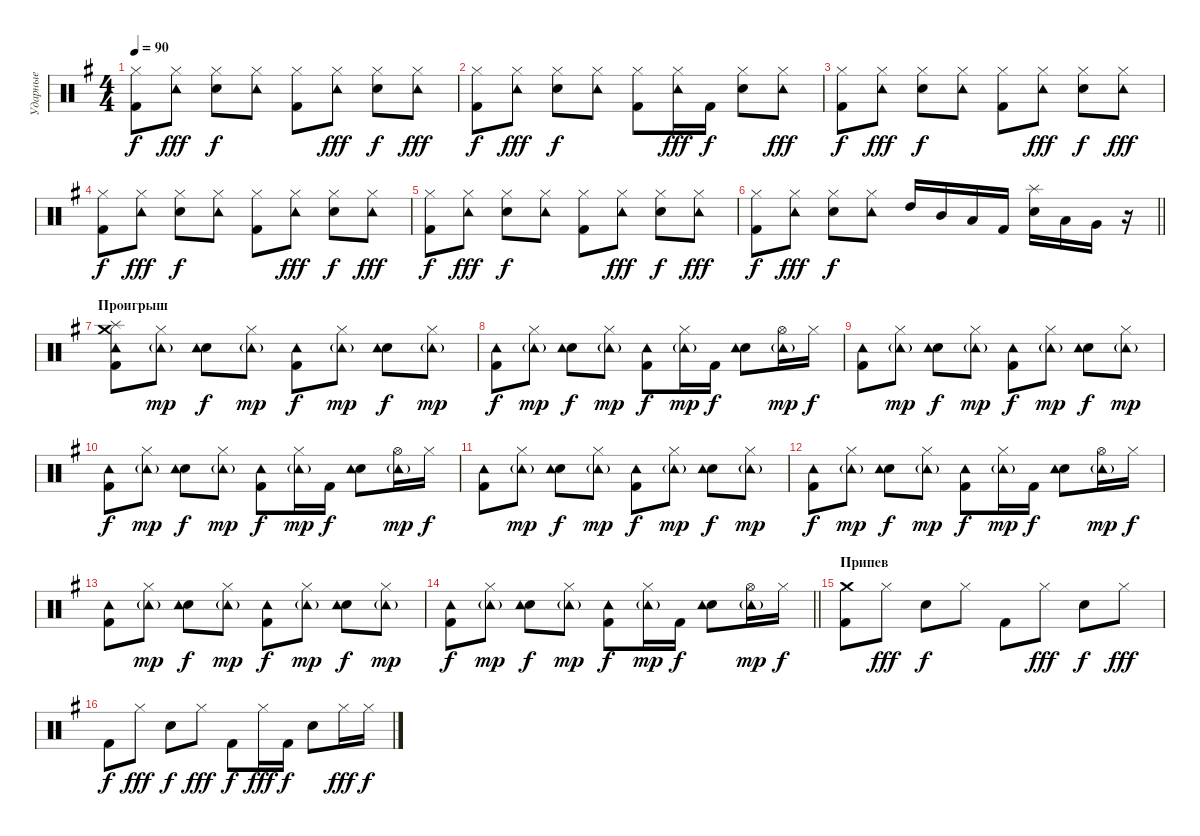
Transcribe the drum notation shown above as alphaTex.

\track ("Ударные" "Ударные") {instrument percussion}
\staff {score}
\articulation defaults
\ts (4 4)
\tempo 90
\clef neutral
\ks eminor
("Kick (hit) 2" "Hi-Hat (closed)").8{dy f} ("Hi-Hat (closed)" "Tambourine (hit)").8{dy fff} ("Electric Snare (hit)" "Hi-Hat (closed)").8{dy f} ("Hi-Hat (closed)" "Tambourine (hit)").8 ("Kick (hit) 2" "Hi-Hat (closed)").8 ("Hi-Hat (closed)" "Tambourine (hit)").8{dy fff} ("Electric Snare (hit)" "Hi-Hat (closed)").8{dy f} ("Hi-Hat (closed)" "Tambourine (hit)").8{dy fff} |
("Kick (hit) 2" "Hi-Hat (closed)").8{dy f} ("Hi-Hat (closed)" "Tambourine (hit)").8{dy fff} ("Electric Snare (hit)" "Hi-Hat (closed)").8{dy f} ("Hi-Hat (closed)" "Tambourine (hit)").8 ("Kick (hit) 2" "Hi-Hat (closed)").8 ("Hi-Hat (closed)" "Tambourine (hit)").16{dy fff} "Kick (hit) 2".16{dy f} ("Electric Snare (hit)" "Hi-Hat (closed)").8 ("Hi-Hat (closed)" "Tambourine (hit)").8{dy fff} |
("Kick (hit) 2" "Hi-Hat (closed)").8{dy f} ("Hi-Hat (closed)" "Tambourine (hit)").8{dy fff} ("Electric Snare (hit)" "Hi-Hat (closed)").8{dy f} ("Hi-Hat (closed)" "Tambourine (hit)").8 ("Kick (hit) 2" "Hi-Hat (closed)").8 ("Hi-Hat (closed)" "Tambourine (hit)").8{dy fff} ("Electric Snare (hit)" "Hi-Hat (closed)").8{dy f} ("Hi-Hat (closed)" "Tambourine (hit)").8{dy fff} |
("Kick (hit) 2" "Hi-Hat (closed)").8{dy f} ("Hi-Hat (closed)" "Tambourine (hit)").8{dy fff} ("Electric Snare (hit)" "Hi-Hat (closed)").8{dy f} ("Hi-Hat (closed)" "Tambourine (hit)").8 ("Kick (hit) 2" "Hi-Hat (closed)").8 ("Hi-Hat (closed)" "Tambourine (hit)").8{dy fff} ("Electric Snare (hit)" "Hi-Hat (closed)").8{dy f} ("Hi-Hat (closed)" "Tambourine (hit)").8{dy fff} |
("Kick (hit) 2" "Hi-Hat (closed)").8{dy f} ("Hi-Hat (closed)" "Tambourine (hit)").8{dy fff} ("Electric Snare (hit)" "Hi-Hat (closed)").8{dy f} ("Hi-Hat (closed)" "Tambourine (hit)").8 ("Kick (hit) 2" "Hi-Hat (closed)").8 ("Hi-Hat (closed)" "Tambourine (hit)").8{dy fff} ("Electric Snare (hit)" "Hi-Hat (closed)").8{dy f} ("Hi-Hat (closed)" "Tambourine (hit)").8{dy fff} |
\barLineRight lightlight
("Kick (hit) 2" "Hi-Hat (closed)").8{dy f} ("Hi-Hat (closed)" "Tambourine (hit)").8{dy fff} ("Electric Snare (hit)" "Hi-Hat (closed)").8{dy f} ("Hi-Hat (closed)" "Tambourine (hit)").8 "High Tom (hit)".16 "Mid Tom (hit)".16 "Low Tom (hit)".16 "Kick (hit) 2".16 ("Splash (hit)" "Electric Snare (hit)").16 "Low Tom (hit)".16 "Very Low Tom (hit)".16 r.16 |
\section ("" "Проигрыш")
("Splash (hit)" "Kick (hit) 2" "Crash medium (hit)" "Tambourine (hit)").8 ("Hi-Hat (closed)" "Tambourine (hit)"{g}).8{dy mp} ("Electric Snare (hit)" "Tambourine (hit)").8{dy f} ("Hi-Hat (closed)" "Tambourine (hit)"{g}).8{dy mp} ("Kick (hit) 2" "Tambourine (hit)").8{dy f} ("Hi-Hat (closed)" "Tambourine (hit)"{g}).8{dy mp} ("Electric Snare (hit)" "Tambourine (hit)").8{dy f} ("Hi-Hat (closed)" "Tambourine (hit)"{g}).8{dy mp} |
("Kick (hit) 2" "Tambourine (hit)").8{dy f} ("Hi-Hat (closed)" "Tambourine (hit)"{g}).8{dy mp} ("Electric Snare (hit)" "Tambourine (hit)").8{dy f} ("Hi-Hat (closed)" "Tambourine (hit)"{g}).8{dy mp} ("Kick (hit) 2" "Tambourine (hit)").8{dy f} ("Hi-Hat (closed)" "Tambourine (hit)"{g}).16{dy mp} "Kick (hit) 2".16{dy f} ("Electric Snare (hit)" "Tambourine (hit)").8 ("Hi-Hat (open)" "Tambourine (hit)"{g}).16{dy mp} "Hi-Hat (closed)".16{dy f} |
("Kick (hit) 2" "Tambourine (hit)").8 ("Hi-Hat (closed)" "Tambourine (hit)"{g}).8{dy mp} ("Electric Snare (hit)" "Tambourine (hit)").8{dy f} ("Hi-Hat (closed)" "Tambourine (hit)"{g}).8{dy mp} ("Kick (hit) 2" "Tambourine (hit)").8{dy f} ("Hi-Hat (closed)" "Tambourine (hit)"{g}).8{dy mp} ("Electric Snare (hit)" "Tambourine (hit)").8{dy f} ("Hi-Hat (closed)" "Tambourine (hit)"{g}).8{dy mp} |
("Kick (hit) 2" "Tambourine (hit)").8{dy f} ("Hi-Hat (closed)" "Tambourine (hit)"{g}).8{dy mp} ("Electric Snare (hit)" "Tambourine (hit)").8{dy f} ("Hi-Hat (closed)" "Tambourine (hit)"{g}).8{dy mp} ("Kick (hit) 2" "Tambourine (hit)").8{dy f} ("Hi-Hat (closed)" "Tambourine (hit)"{g}).16{dy mp} "Kick (hit) 2".16{dy f} ("Electric Snare (hit)" "Tambourine (hit)").8 ("Hi-Hat (open)" "Tambourine (hit)"{g}).16{dy mp} "Hi-Hat (closed)".16{dy f} |
("Kick (hit) 2" "Tambourine (hit)").8 ("Hi-Hat (closed)" "Tambourine (hit)"{g}).8{dy mp} ("Electric Snare (hit)" "Tambourine (hit)").8{dy f} ("Hi-Hat (closed)" "Tambourine (hit)"{g}).8{dy mp} ("Kick (hit) 2" "Tambourine (hit)").8{dy f} ("Hi-Hat (closed)" "Tambourine (hit)"{g}).8{dy mp} ("Electric Snare (hit)" "Tambourine (hit)").8{dy f} ("Hi-Hat (closed)" "Tambourine (hit)"{g}).8{dy mp} |
("Kick (hit) 2" "Tambourine (hit)").8{dy f} ("Hi-Hat (closed)" "Tambourine (hit)"{g}).8{dy mp} ("Electric Snare (hit)" "Tambourine (hit)").8{dy f} ("Hi-Hat (closed)" "Tambourine (hit)"{g}).8{dy mp} ("Kick (hit) 2" "Tambourine (hit)").8{dy f} ("Hi-Hat (closed)" "Tambourine (hit)"{g}).16{dy mp} "Kick (hit) 2".16{dy f} ("Electric Snare (hit)" "Tambourine (hit)").8 ("Hi-Hat (open)" "Tambourine (hit)"{g}).16{dy mp} "Hi-Hat (closed)".16{dy f} |
("Kick (hit) 2" "Tambourine (hit)").8 ("Hi-Hat (closed)" "Tambourine (hit)"{g}).8{dy mp} ("Electric Snare (hit)" "Tambourine (hit)").8{dy f} ("Hi-Hat (closed)" "Tambourine (hit)"{g}).8{dy mp} ("Kick (hit) 2" "Tambourine (hit)").8{dy f} ("Hi-Hat (closed)" "Tambourine (hit)"{g}).8{dy mp} ("Electric Snare (hit)" "Tambourine (hit)").8{dy f} ("Hi-Hat (closed)" "Tambourine (hit)"{g}).8{dy mp} |
\barLineRight lightlight
("Kick (hit) 2" "Tambourine (hit)").8{dy f} ("Hi-Hat (closed)" "Tambourine (hit)"{g}).8{dy mp} ("Electric Snare (hit)" "Tambourine (hit)").8{dy f} ("Hi-Hat (closed)" "Tambourine (hit)"{g}).8{dy mp} ("Kick (hit) 2" "Tambourine (hit)").8{dy f} ("Hi-Hat (closed)" "Tambourine (hit)"{g}).16{dy mp} "Kick (hit) 2".16{dy f} ("Electric Snare (hit)" "Tambourine (hit)").8 ("Hi-Hat (open)" "Tambourine (hit)"{g}).16{dy mp} "Hi-Hat (closed)".16{dy f} |
\section ("" "Припев")
("Crash medium (hit)" "Kick (hit) 2").8 "Hi-Hat (closed)".8{dy fff} "Snare (hit) 2".8{dy f} "Hi-Hat (closed)".8 "Kick (hit) 2".8 "Hi-Hat (closed)".8{dy fff} "Snare (hit) 2".8{dy f} "Hi-Hat (closed)".8{dy fff} |
"Kick (hit) 2".8{dy f} "Hi-Hat (closed)".8{dy fff} "Snare (hit) 2".8{dy f} "Hi-Hat (closed)".8{dy fff} "Kick (hit) 2".8{dy f} "Hi-Hat (closed)".16{dy fff} "Kick (hit) 2".16{dy f} "Snare (hit) 2".8 "Hi-Hat (closed)".16{dy fff} "Hi-Hat (closed)".16{dy f}
